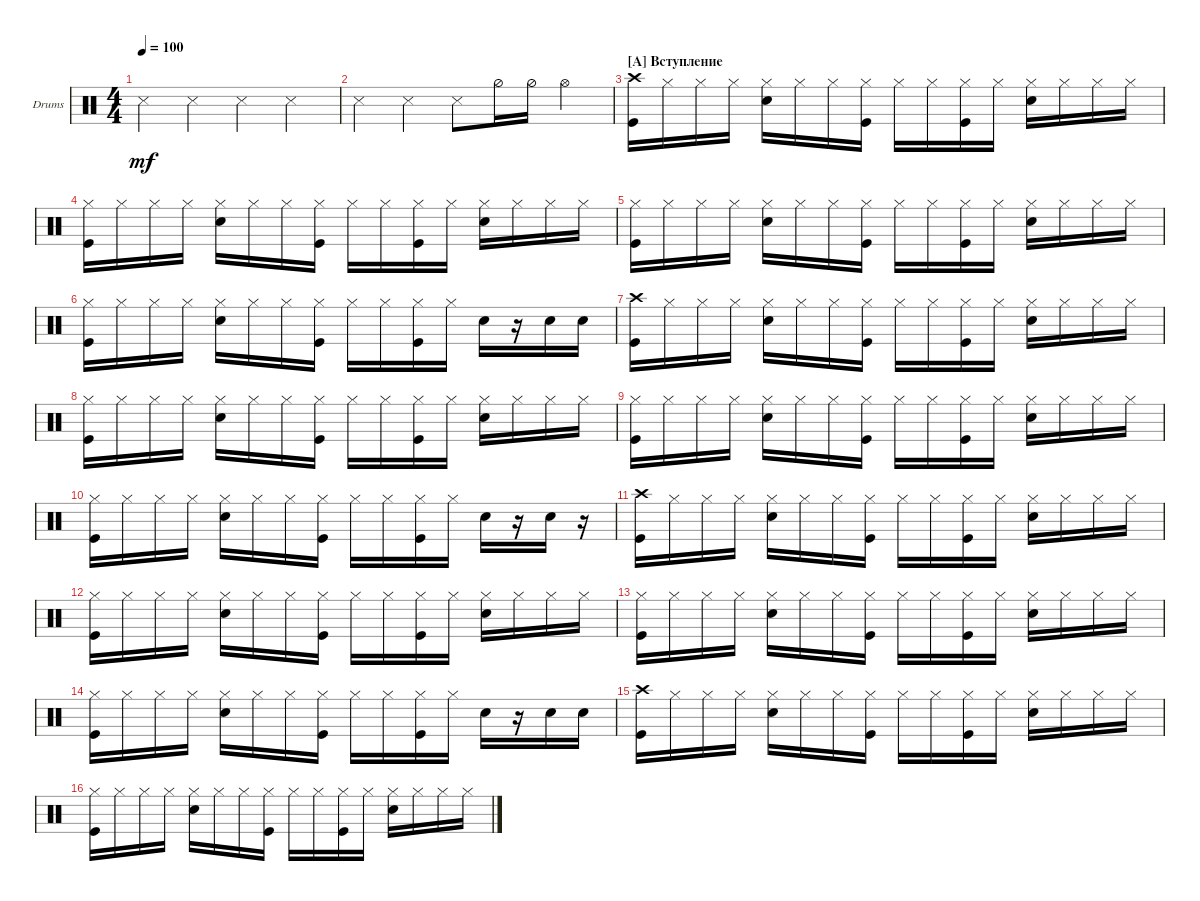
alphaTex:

\bracketExtendMode groupsimilarinstruments
\firstSystemTrackNameOrientation horizontal
\otherSystemsTrackNameOrientation horizontal
\track ("Drumkit" "Drums") {instrument percussion}
\staff {score}
\articulation defaults
\ts (4 4)
\tempo 100
\clef neutral
\ks c "Snare (side stick) 3".4{dy mf} "Snare (side stick) 3".4 "Snare (side stick) 3".4 "Snare (side stick) 3".4
|
"Snare (side stick) 3".4 "Snare (side stick) 3".4 "Snare (side stick) 3".8 "Hi-Hat (half)".16 "Hi-Hat (half)".16 "Hi-Hat (open)".4 |
\section ("A" "Вступление")
("Kick (hit)" "Crash high (hit)").16 "Hi-Hat (closed)".16 "Hi-Hat (closed)".16 "Hi-Hat (closed)".16 ("Hi-Hat (closed)" "Snare (hit) 2").16 "Hi-Hat (closed)".16 "Hi-Hat (closed)".16 ("Hi-Hat (closed)" "Kick (hit)").16 "Hi-Hat (closed)".16 "Hi-Hat (closed)".16 ("Hi-Hat (closed)" "Kick (hit)").16 "Hi-Hat (closed)".16 ("Hi-Hat (closed)" "Snare (hit) 2").16 "Hi-Hat (closed)".16 "Hi-Hat (closed)".16 "Hi-Hat (closed)".16 |
("Kick (hit)" "Hi-Hat (closed)").16 "Hi-Hat (closed)".16 "Hi-Hat (closed)".16 "Hi-Hat (closed)".16 ("Hi-Hat (closed)" "Snare (hit) 2").16 "Hi-Hat (closed)".16 "Hi-Hat (closed)".16 ("Hi-Hat (closed)" "Kick (hit)").16 "Hi-Hat (closed)".16 "Hi-Hat (closed)".16 ("Hi-Hat (closed)" "Kick (hit)").16 "Hi-Hat (closed)".16 ("Hi-Hat (closed)" "Snare (hit) 2").16 "Hi-Hat (closed)".16 "Hi-Hat (closed)".16 "Hi-Hat (closed)".16 |
("Kick (hit)" "Hi-Hat (closed)").16 "Hi-Hat (closed)".16 "Hi-Hat (closed)".16 "Hi-Hat (closed)".16 ("Hi-Hat (closed)" "Snare (hit) 2").16 "Hi-Hat (closed)".16 "Hi-Hat (closed)".16 ("Hi-Hat (closed)" "Kick (hit)").16 "Hi-Hat (closed)".16 "Hi-Hat (closed)".16 ("Hi-Hat (closed)" "Kick (hit)").16 "Hi-Hat (closed)".16 ("Hi-Hat (closed)" "Snare (hit) 2").16 "Hi-Hat (closed)".16 "Hi-Hat (closed)".16 "Hi-Hat (closed)".16 |
("Kick (hit)" "Hi-Hat (closed)").16 "Hi-Hat (closed)".16 "Hi-Hat (closed)".16 "Hi-Hat (closed)".16 ("Hi-Hat (closed)" "Snare (hit) 2").16 "Hi-Hat (closed)".16 "Hi-Hat (closed)".16 ("Hi-Hat (closed)" "Kick (hit)").16 "Hi-Hat (closed)".16 "Hi-Hat (closed)".16 ("Hi-Hat (closed)" "Kick (hit)").16 "Hi-Hat (closed)".16 "Snare (hit) 2".16 r.16 "Snare (hit) 2".16 "Snare (hit) 2".16 |
("Kick (hit)" "Crash high (hit)").16 "Hi-Hat (closed)".16 "Hi-Hat (closed)".16 "Hi-Hat (closed)".16 ("Hi-Hat (closed)" "Snare (hit) 2").16 "Hi-Hat (closed)".16 "Hi-Hat (closed)".16 ("Hi-Hat (closed)" "Kick (hit)").16 "Hi-Hat (closed)".16 "Hi-Hat (closed)".16 ("Hi-Hat (closed)" "Kick (hit)").16 "Hi-Hat (closed)".16 ("Hi-Hat (closed)" "Snare (hit) 2").16 "Hi-Hat (closed)".16 "Hi-Hat (closed)".16 "Hi-Hat (closed)".16 |
("Kick (hit)" "Hi-Hat (closed)").16 "Hi-Hat (closed)".16 "Hi-Hat (closed)".16 "Hi-Hat (closed)".16 ("Hi-Hat (closed)" "Snare (hit) 2").16 "Hi-Hat (closed)".16 "Hi-Hat (closed)".16 ("Hi-Hat (closed)" "Kick (hit)").16 "Hi-Hat (closed)".16 "Hi-Hat (closed)".16 ("Hi-Hat (closed)" "Kick (hit)").16 "Hi-Hat (closed)".16 ("Hi-Hat (closed)" "Snare (hit) 2").16 "Hi-Hat (closed)".16 "Hi-Hat (closed)".16 "Hi-Hat (closed)".16 |
("Kick (hit)" "Hi-Hat (closed)").16 "Hi-Hat (closed)".16 "Hi-Hat (closed)".16 "Hi-Hat (closed)".16 ("Hi-Hat (closed)" "Snare (hit) 2").16 "Hi-Hat (closed)".16 "Hi-Hat (closed)".16 ("Hi-Hat (closed)" "Kick (hit)").16 "Hi-Hat (closed)".16 "Hi-Hat (closed)".16 ("Hi-Hat (closed)" "Kick (hit)").16 "Hi-Hat (closed)".16 ("Hi-Hat (closed)" "Snare (hit) 2").16 "Hi-Hat (closed)".16 "Hi-Hat (closed)".16 "Hi-Hat (closed)".16 |
("Kick (hit)" "Hi-Hat (closed)").16 "Hi-Hat (closed)".16 "Hi-Hat (closed)".16 "Hi-Hat (closed)".16 ("Hi-Hat (closed)" "Snare (hit) 2").16 "Hi-Hat (closed)".16 "Hi-Hat (closed)".16 ("Hi-Hat (closed)" "Kick (hit)").16 "Hi-Hat (closed)".16 "Hi-Hat (closed)".16 ("Hi-Hat (closed)" "Kick (hit)").16 "Hi-Hat (closed)".16 "Snare (hit) 2".16 r.16 "Snare (hit) 2".16 r.16 |
("Kick (hit)" "Crash high (hit)").16 "Hi-Hat (closed)".16 "Hi-Hat (closed)".16 "Hi-Hat (closed)".16 ("Hi-Hat (closed)" "Snare (hit) 2").16 "Hi-Hat (closed)".16 "Hi-Hat (closed)".16 ("Hi-Hat (closed)" "Kick (hit)").16 "Hi-Hat (closed)".16 "Hi-Hat (closed)".16 ("Hi-Hat (closed)" "Kick (hit)").16 "Hi-Hat (closed)".16 ("Hi-Hat (closed)" "Snare (hit) 2").16 "Hi-Hat (closed)".16 "Hi-Hat (closed)".16 "Hi-Hat (closed)".16 |
("Kick (hit)" "Hi-Hat (closed)").16 "Hi-Hat (closed)".16 "Hi-Hat (closed)".16 "Hi-Hat (closed)".16 ("Hi-Hat (closed)" "Snare (hit) 2").16 "Hi-Hat (closed)".16 "Hi-Hat (closed)".16 ("Hi-Hat (closed)" "Kick (hit)").16 "Hi-Hat (closed)".16 "Hi-Hat (closed)".16 ("Hi-Hat (closed)" "Kick (hit)").16 "Hi-Hat (closed)".16 ("Hi-Hat (closed)" "Snare (hit) 2").16 "Hi-Hat (closed)".16 "Hi-Hat (closed)".16 "Hi-Hat (closed)".16 |
("Kick (hit)" "Hi-Hat (closed)").16 "Hi-Hat (closed)".16 "Hi-Hat (closed)".16 "Hi-Hat (closed)".16 ("Hi-Hat (closed)" "Snare (hit) 2").16 "Hi-Hat (closed)".16 "Hi-Hat (closed)".16 ("Hi-Hat (closed)" "Kick (hit)").16 "Hi-Hat (closed)".16 "Hi-Hat (closed)".16 ("Hi-Hat (closed)" "Kick (hit)").16 "Hi-Hat (closed)".16 ("Hi-Hat (closed)" "Snare (hit) 2").16 "Hi-Hat (closed)".16 "Hi-Hat (closed)".16 "Hi-Hat (closed)".16 |
("Kick (hit)" "Hi-Hat (closed)").16 "Hi-Hat (closed)".16 "Hi-Hat (closed)".16 "Hi-Hat (closed)".16 ("Hi-Hat (closed)" "Snare (hit) 2").16 "Hi-Hat (closed)".16 "Hi-Hat (closed)".16 ("Hi-Hat (closed)" "Kick (hit)").16 "Hi-Hat (closed)".16 "Hi-Hat (closed)".16 ("Hi-Hat (closed)" "Kick (hit)").16 "Hi-Hat (closed)".16 "Snare (hit) 2".16 r.16 "Snare (hit) 2".16 "Snare (hit) 2".16 |
("Kick (hit)" "Crash high (hit)").16 "Hi-Hat (closed)".16 "Hi-Hat (closed)".16 "Hi-Hat (closed)".16 ("Hi-Hat (closed)" "Snare (hit) 2").16 "Hi-Hat (closed)".16 "Hi-Hat (closed)".16 ("Hi-Hat (closed)" "Kick (hit)").16 "Hi-Hat (closed)".16 "Hi-Hat (closed)".16 ("Hi-Hat (closed)" "Kick (hit)").16 "Hi-Hat (closed)".16 ("Hi-Hat (closed)" "Snare (hit) 2").16 "Hi-Hat (closed)".16 "Hi-Hat (closed)".16 "Hi-Hat (closed)".16 |
("Kick (hit)" "Hi-Hat (closed)").16 "Hi-Hat (closed)".16 "Hi-Hat (closed)".16 "Hi-Hat (closed)".16 ("Hi-Hat (closed)" "Snare (hit) 2").16 "Hi-Hat (closed)".16 "Hi-Hat (closed)".16 ("Hi-Hat (closed)" "Kick (hit)").16 "Hi-Hat (closed)".16 "Hi-Hat (closed)".16 ("Hi-Hat (closed)" "Kick (hit)").16 "Hi-Hat (closed)".16 ("Hi-Hat (closed)" "Snare (hit) 2").16 "Hi-Hat (closed)".16 "Hi-Hat (closed)".16 "Hi-Hat (closed)".16
